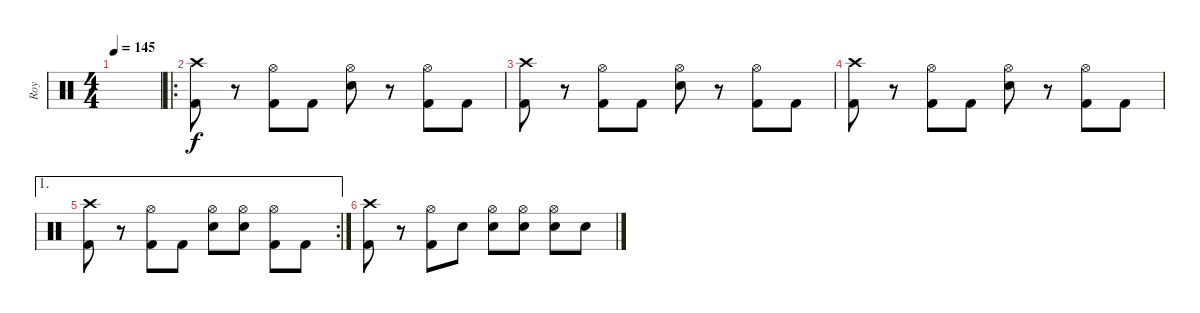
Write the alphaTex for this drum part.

\track ("Roy" "Roy") {instrument percussion}
\staff {score}
\articulation defaults
\ts (4 4)
\tempo 145
\clef neutral
\ks c
|
\ro
("Crash high (hit)" "Kick (hit) 2").8 r.8 ("Hi-Hat (open)" "Kick (hit) 2").8 "Kick (hit) 2".8 ("Hi-Hat (open)" "Electric Snare (hit)").8 r.8 ("Hi-Hat (open)" "Kick (hit) 2").8 "Kick (hit) 2".8 |
("Crash high (hit)" "Kick (hit) 2").8 r.8 ("Hi-Hat (open)" "Kick (hit) 2").8 "Kick (hit) 2".8 ("Hi-Hat (open)" "Electric Snare (hit)").8 r.8 ("Hi-Hat (open)" "Kick (hit) 2").8 "Kick (hit) 2".8 |
("Crash high (hit)" "Kick (hit) 2").8 r.8 ("Hi-Hat (open)" "Kick (hit) 2").8 "Kick (hit) 2".8 ("Hi-Hat (open)" "Electric Snare (hit)").8 r.8 ("Hi-Hat (open)" "Kick (hit) 2").8 "Kick (hit) 2".8 |
\ae 1
\rc 2
("Crash high (hit)" "Kick (hit) 2").8 r.8 ("Hi-Hat (open)" "Kick (hit) 2").8 "Kick (hit) 2".8 ("Hi-Hat (open)" "Electric Snare (hit)").8 ("Hi-Hat (open)" "Electric Snare (hit)").8 ("Hi-Hat (open)" "Kick (hit) 2").8 "Kick (hit) 2".8 |
("Crash high (hit)" "Kick (hit) 2").8 r.8 ("Hi-Hat (open)" "Kick (hit) 2").8 "Electric Snare (hit)".8 ("Hi-Hat (open)" "Electric Snare (hit)").8 ("Hi-Hat (open)" "Electric Snare (hit)").8 ("Hi-Hat (open)" "Electric Snare (hit)").8 "Electric Snare (hit)".8
